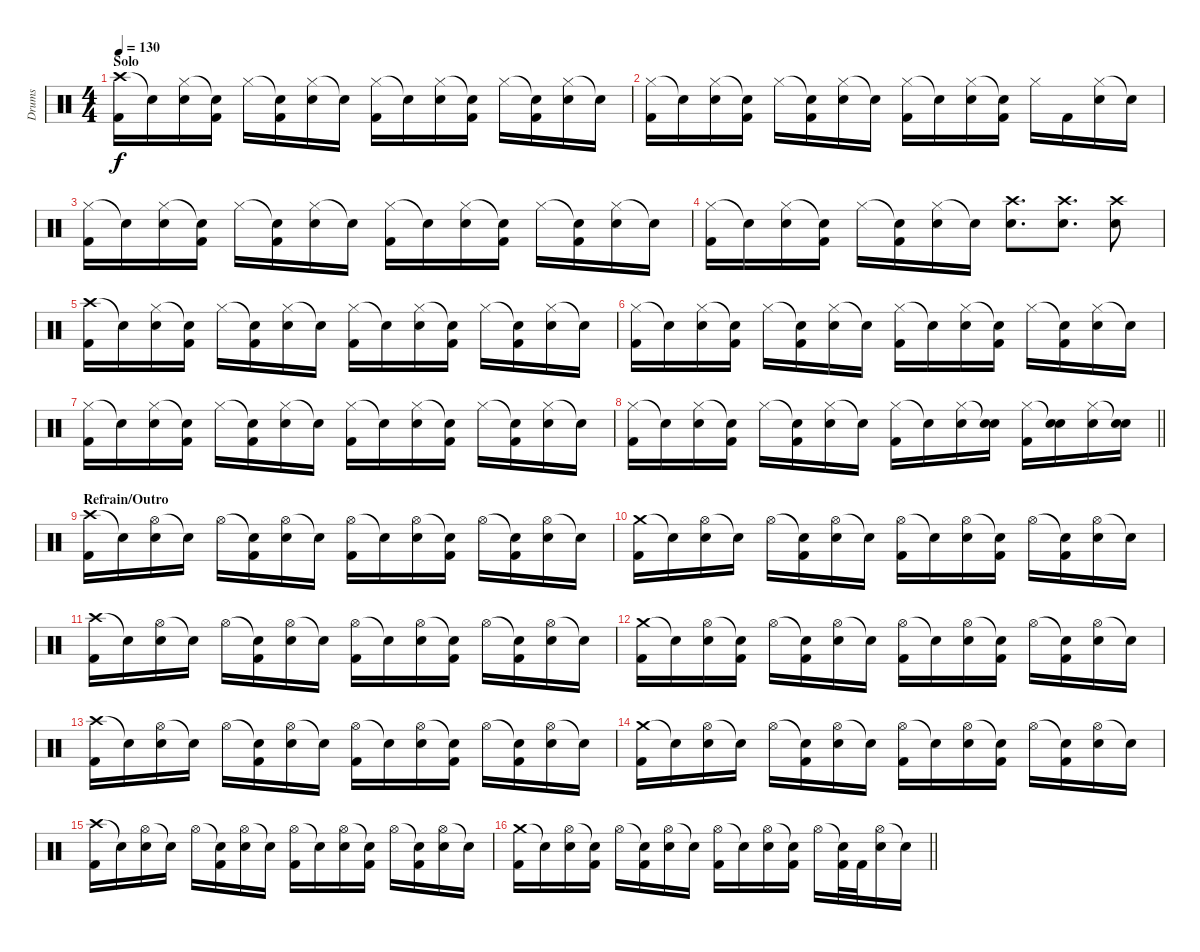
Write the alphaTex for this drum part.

\track ("Drums" "Drums") {instrument percussion}
\staff {score}
\articulation defaults
\ts (4 4)
\section ("" "Solo")
\tempo 130
\clef neutral
\ks c
("Crash high (hit)" "Kick (hit) 2").16{dy f} "Snare (hit)"{t}.16 ("Hi-Hat (closed)" "Snare (hit) 2").16 ("Snare (hit)"{t} "Kick (hit) 2").16 "Hi-Hat (closed)".16 ("Snare (hit)"{t} "Kick (hit) 2").16 ("Hi-Hat (closed)" "Snare (hit) 2").16 "Snare (hit)"{t}.16 ("Hi-Hat (closed)" "Kick (hit) 2").16 "Snare (hit)"{t}.16 ("Hi-Hat (closed)" "Snare (hit) 2").16 ("Snare (hit)"{t} "Kick (hit) 2").16 "Hi-Hat (closed)".16 ("Snare (hit)"{t} "Kick (hit) 2").16 ("Hi-Hat (closed)" "Snare (hit) 2").16 "Snare (hit)"{t}.16 |
("Hi-Hat (closed)" "Kick (hit) 2").16 "Snare (hit)"{t}.16 ("Hi-Hat (closed)" "Snare (hit) 2").16 ("Snare (hit)"{t} "Kick (hit) 2").16 "Hi-Hat (closed)".16 ("Snare (hit)"{t} "Kick (hit) 2").16 ("Hi-Hat (closed)" "Snare (hit) 2").16 "Snare (hit)"{t}.16 ("Hi-Hat (closed)" "Kick (hit) 2").16 "Snare (hit)"{t}.16 ("Hi-Hat (closed)" "Snare (hit) 2").16 ("Snare (hit)"{t} "Kick (hit) 2").16 "Hi-Hat (closed)".16 "Kick (hit) 2".16 ("Hi-Hat (closed)" "Snare (hit) 2").16 "Snare (hit)"{t}.16 |
("Hi-Hat (closed)" "Kick (hit) 2").16 "Snare (hit)"{t}.16 ("Hi-Hat (closed)" "Snare (hit) 2").16 ("Snare (hit)"{t} "Kick (hit) 2").16 "Hi-Hat (closed)".16 ("Snare (hit)"{t} "Kick (hit) 2").16 ("Hi-Hat (closed)" "Snare (hit) 2").16 "Snare (hit)"{t}.16 ("Hi-Hat (closed)" "Kick (hit) 2").16 "Snare (hit)"{t}.16 ("Hi-Hat (closed)" "Snare (hit) 2").16 ("Snare (hit)"{t} "Kick (hit) 2").16 "Hi-Hat (closed)".16 ("Snare (hit)"{t} "Kick (hit) 2").16 ("Hi-Hat (closed)" "Snare (hit) 2").16 "Snare (hit)"{t}.16 |
("Hi-Hat (closed)" "Kick (hit) 2").16 "Snare (hit)"{t}.16 ("Hi-Hat (closed)" "Snare (hit) 2").16 ("Snare (hit)"{t} "Kick (hit) 2").16 "Hi-Hat (closed)".16 ("Snare (hit)"{t} "Kick (hit) 2").16 ("Hi-Hat (closed)" "Snare (hit) 2").16 "Snare (hit)"{t}.16 ("Crash high (hit)" "Snare (hit) 2").8{d} ("Crash high (hit)" "Snare (hit) 2").8{d} ("Crash high (hit)" "Snare (hit) 2").8 |
("Crash high (hit)" "Kick (hit) 2").16 "Snare (hit)"{t}.16 ("Hi-Hat (closed)" "Snare (hit) 2").16 ("Snare (hit)"{t} "Kick (hit) 2").16 "Hi-Hat (closed)".16 ("Snare (hit)"{t} "Kick (hit) 2").16 ("Hi-Hat (closed)" "Snare (hit) 2").16 "Snare (hit)"{t}.16 ("Hi-Hat (closed)" "Kick (hit) 2").16 "Snare (hit)"{t}.16 ("Hi-Hat (closed)" "Snare (hit) 2").16 ("Snare (hit)"{t} "Kick (hit) 2").16 "Hi-Hat (closed)".16 ("Snare (hit)"{t} "Kick (hit) 2").16 ("Hi-Hat (closed)" "Snare (hit) 2").16 "Snare (hit)"{t}.16 |
("Hi-Hat (closed)" "Kick (hit) 2").16 "Snare (hit)"{t}.16 ("Hi-Hat (closed)" "Snare (hit) 2").16 ("Snare (hit)"{t} "Kick (hit) 2").16 "Hi-Hat (closed)".16 ("Snare (hit)"{t} "Kick (hit) 2").16 ("Hi-Hat (closed)" "Snare (hit) 2").16 "Snare (hit)"{t}.16 ("Hi-Hat (closed)" "Kick (hit) 2").16 "Snare (hit)"{t}.16 ("Hi-Hat (closed)" "Snare (hit) 2").16 ("Snare (hit)"{t} "Kick (hit) 2").16 "Hi-Hat (closed)".16 ("Snare (hit)"{t} "Kick (hit) 2").16 ("Hi-Hat (closed)" "Snare (hit) 2").16 "Snare (hit)"{t}.16 |
("Hi-Hat (closed)" "Kick (hit) 2").16 "Snare (hit)"{t}.16 ("Hi-Hat (closed)" "Snare (hit) 2").16 ("Snare (hit)"{t} "Kick (hit) 2").16 "Hi-Hat (closed)".16 ("Snare (hit)"{t} "Kick (hit) 2").16 ("Hi-Hat (closed)" "Snare (hit) 2").16 "Snare (hit)"{t}.16 ("Hi-Hat (closed)" "Kick (hit) 2").16 "Snare (hit)"{t}.16 ("Hi-Hat (closed)" "Snare (hit) 2").16 ("Snare (hit)"{t} "Kick (hit) 2").16 "Hi-Hat (closed)".16 ("Snare (hit)"{t} "Kick (hit) 2").16 ("Hi-Hat (closed)" "Snare (hit) 2").16 "Snare (hit)"{t}.16 |
\barLineRight lightlight
("Hi-Hat (closed)" "Kick (hit) 2").16 "Snare (hit)"{t}.16 ("Hi-Hat (closed)" "Snare (hit) 2").16 ("Snare (hit)"{t} "Kick (hit) 2").16 "Hi-Hat (closed)".16 ("Snare (hit)"{t} "Kick (hit) 2").16 ("Hi-Hat (closed)" "Snare (hit) 2").16 "Snare (hit)"{t}.16 ("Hi-Hat (closed)" "Kick (hit) 2").16 "Snare (hit)"{t}.16 ("Hi-Hat (closed)" "Snare (hit) 2").16 ("Snare (hit)"{t} "Snare (hit) 2").16 ("Hi-Hat (closed)" "Kick (hit) 2").16 ("Snare (hit)"{t} "Snare (hit) 2").16 ("Hi-Hat (closed)" "Snare (hit) 2").16 ("Snare (hit)"{t} "Snare (hit) 2").16 |
\section ("" "Refrain/Outro")
("Crash high (hit)" "Kick (hit) 2").16 "Snare (hit)"{t}.16 ("Hi-Hat (open)" "Snare (hit) 2").16 "Snare (hit)"{t}.16 "Hi-Hat (open)".16 ("Snare (hit)"{t} "Kick (hit) 2").16 ("Hi-Hat (open)" "Snare (hit) 2").16 "Snare (hit)"{t}.16 ("Hi-Hat (open)" "Kick (hit) 2").16 "Snare (hit)"{t}.16 ("Hi-Hat (open)" "Snare (hit) 2").16 ("Snare (hit)"{t} "Kick (hit) 2").16 "Hi-Hat (open)".16 ("Snare (hit)"{t} "Kick (hit) 2").16 ("Hi-Hat (open)" "Snare (hit) 2").16 "Snare (hit)"{t}.16 |
("Crash medium (hit)" "Kick (hit) 2").16 "Snare (hit)"{t}.16 ("Hi-Hat (open)" "Snare (hit) 2").16 "Snare (hit)"{t}.16 "Hi-Hat (open)".16 ("Snare (hit)"{t} "Kick (hit) 2").16 ("Hi-Hat (open)" "Snare (hit) 2").16 "Snare (hit)"{t}.16 ("Hi-Hat (open)" "Kick (hit) 2").16 "Snare (hit)"{t}.16 ("Hi-Hat (open)" "Snare (hit) 2").16 ("Snare (hit)"{t} "Kick (hit) 2").16 "Hi-Hat (open)".16 ("Snare (hit)"{t} "Kick (hit) 2").16 ("Hi-Hat (open)" "Snare (hit) 2").16 "Snare (hit)"{t}.16 |
("Crash high (hit)" "Kick (hit) 2").16 "Snare (hit)"{t}.16 ("Hi-Hat (open)" "Snare (hit) 2").16 "Snare (hit)"{t}.16 "Hi-Hat (open)".16 ("Snare (hit)"{t} "Kick (hit) 2").16 ("Hi-Hat (open)" "Snare (hit) 2").16 "Snare (hit)"{t}.16 ("Hi-Hat (open)" "Kick (hit) 2").16 "Snare (hit)"{t}.16 ("Hi-Hat (open)" "Snare (hit) 2").16 ("Snare (hit)"{t} "Kick (hit) 2").16 "Hi-Hat (open)".16 ("Snare (hit)"{t} "Kick (hit) 2").16 ("Hi-Hat (open)" "Snare (hit) 2").16 "Snare (hit)"{t}.16 |
("Crash medium (hit)" "Kick (hit) 2").16 "Snare (hit)"{t}.16 ("Hi-Hat (open)" "Snare (hit) 2").16 ("Snare (hit)"{t} "Kick (hit) 2").16 "Hi-Hat (open)".16 ("Snare (hit)"{t} "Kick (hit) 2").16 ("Hi-Hat (open)" "Snare (hit) 2").16 "Snare (hit)"{t}.16 ("Hi-Hat (open)" "Kick (hit) 2").16 "Snare (hit)"{t}.16 ("Hi-Hat (open)" "Snare (hit) 2").16 ("Snare (hit)"{t} "Kick (hit) 2").16 "Hi-Hat (open)".16 ("Snare (hit)"{t} "Kick (hit) 2").16 ("Hi-Hat (open)" "Snare (hit) 2").16 "Snare (hit)"{t}.16 |
("Crash high (hit)" "Kick (hit) 2").16 "Snare (hit)"{t}.16 ("Hi-Hat (open)" "Snare (hit) 2").16 "Snare (hit)"{t}.16 "Hi-Hat (open)".16 ("Snare (hit)"{t} "Kick (hit) 2").16 ("Hi-Hat (open)" "Snare (hit) 2").16 "Snare (hit)"{t}.16 ("Hi-Hat (open)" "Kick (hit) 2").16 "Snare (hit)"{t}.16 ("Hi-Hat (open)" "Snare (hit) 2").16 ("Snare (hit)"{t} "Kick (hit) 2").16 "Hi-Hat (open)".16 ("Snare (hit)"{t} "Kick (hit) 2").16 ("Hi-Hat (open)" "Snare (hit) 2").16 "Snare (hit)"{t}.16 |
("Crash medium (hit)" "Kick (hit) 2").16 "Snare (hit)"{t}.16 ("Hi-Hat (open)" "Snare (hit) 2").16 "Snare (hit)"{t}.16 "Hi-Hat (open)".16 ("Snare (hit)"{t} "Kick (hit) 2").16 ("Hi-Hat (open)" "Snare (hit) 2").16 "Snare (hit)"{t}.16 ("Hi-Hat (open)" "Kick (hit) 2").16 "Snare (hit)"{t}.16 ("Hi-Hat (open)" "Snare (hit) 2").16 ("Snare (hit)"{t} "Kick (hit) 2").16 "Hi-Hat (open)".16 ("Snare (hit)"{t} "Kick (hit) 2").16 ("Hi-Hat (open)" "Snare (hit) 2").16 "Snare (hit)"{t}.16 |
("Crash high (hit)" "Kick (hit) 2").16 "Snare (hit)"{t}.16 ("Hi-Hat (open)" "Snare (hit) 2").16 "Snare (hit)"{t}.16 "Hi-Hat (open)".16 ("Snare (hit)"{t} "Kick (hit) 2").16 ("Hi-Hat (open)" "Snare (hit) 2").16 "Snare (hit)"{t}.16 ("Hi-Hat (open)" "Kick (hit) 2").16 "Snare (hit)"{t}.16 ("Hi-Hat (open)" "Snare (hit) 2").16 ("Snare (hit)"{t} "Kick (hit) 2").16 "Hi-Hat (open)".16 ("Snare (hit)"{t} "Kick (hit) 2").16 ("Hi-Hat (open)" "Snare (hit) 2").16 "Snare (hit)"{t}.16 |
\barLineRight lightlight
("Crash medium (hit)" "Kick (hit) 2").16 "Snare (hit)"{t}.16 ("Hi-Hat (open)" "Snare (hit) 2").16 ("Snare (hit)"{t} "Kick (hit) 2").16 "Hi-Hat (open)".16 ("Snare (hit)"{t} "Kick (hit) 2").16 ("Hi-Hat (open)" "Snare (hit) 2").16 "Snare (hit)"{t}.16 ("Hi-Hat (open)" "Kick (hit) 2").16 "Snare (hit)"{t}.16 ("Hi-Hat (open)" "Snare (hit) 2").16 ("Snare (hit)"{t} "Kick (hit) 2").16 "Hi-Hat (open)".16 ("Snare (hit)"{t} "Kick (hit) 2").32 "Kick (hit) 2".32 ("Hi-Hat (open)" "Snare (hit) 2").16 "Snare (hit)"{t}.16
